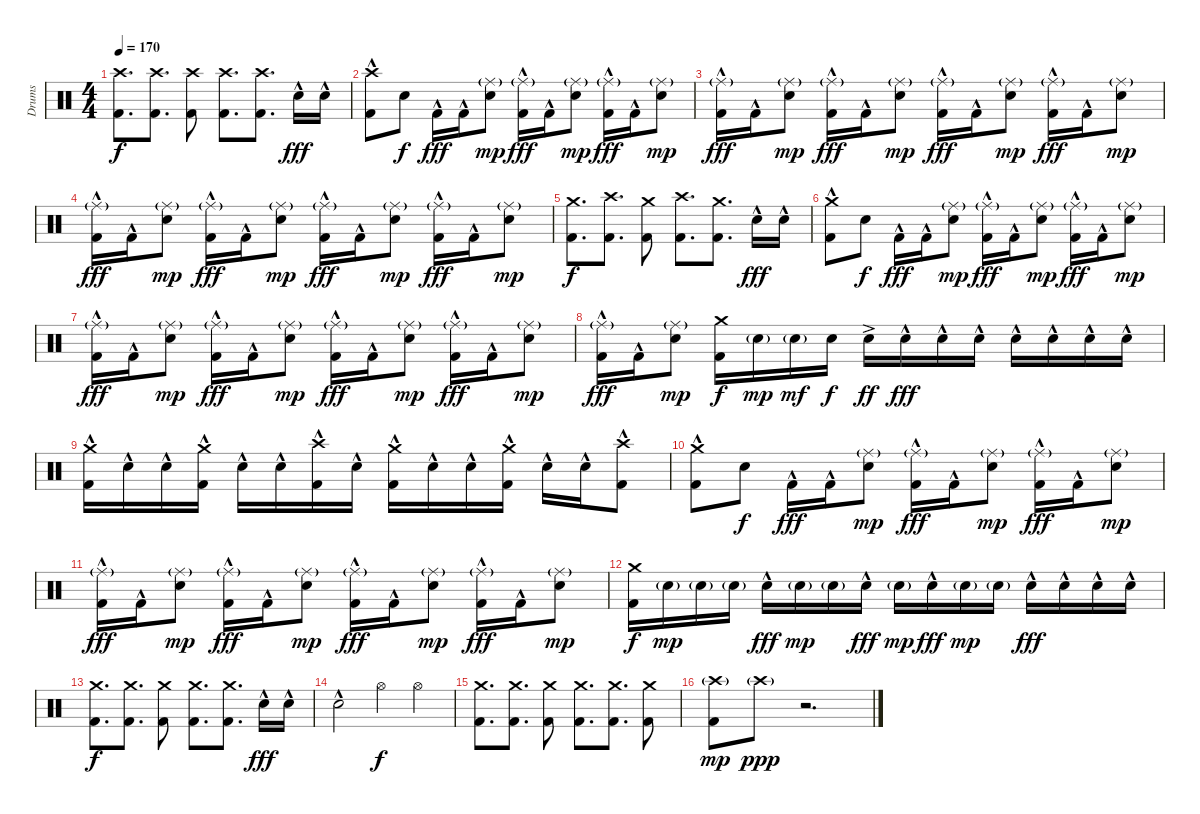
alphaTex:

\track ("Drums" "Drums") {instrument percussion}
\staff {score}
\articulation defaults
\ts (4 4)
\tempo 170
\clef neutral
\ks c
("Crash high (hit)" "Kick (hit) 2").8{d dy f} ("Crash high (hit)" "Kick (hit) 2").8{d} ("Crash high (hit)" "Kick (hit) 2").8 ("Crash high (hit)" "Kick (hit) 2").8{d} ("Crash high (hit)" "Kick (hit) 2").8{d} "Snare (hit) 2"{hac}.16{dy fff} "Snare (hit) 2"{hac}.16 |
("Crash high (hit)" "Kick (hit) 2"{hac}).8 "Snare (hit) 2".8{dy f} "Kick (hit) 2"{hac}.16{dy fff} "Kick (hit) 2"{hac}.16 ("Ride (middle)"{g} "Snare (hit) 2").8{dy mp} ("Ride (middle)"{g} "Kick (hit) 2"{hac}).16{dy fff} "Kick (hit) 2"{hac}.16 ("Ride (middle)"{g} "Snare (hit) 2").8{dy mp} ("Ride (middle)"{g} "Kick (hit) 2"{hac}).16{dy fff} "Kick (hit) 2"{hac}.16 ("Ride (middle)"{g} "Snare (hit) 2").8{dy mp} |
("Ride (middle)"{g} "Kick (hit) 2"{hac}).16{dy fff} "Kick (hit) 2"{hac}.16 ("Ride (middle)"{g} "Snare (hit) 2").8{dy mp} ("Ride (middle)"{g} "Kick (hit) 2"{hac}).16{dy fff} "Kick (hit) 2"{hac}.16 ("Ride (middle)"{g} "Snare (hit) 2").8{dy mp} ("Ride (middle)"{g} "Kick (hit) 2"{hac}).16{dy fff} "Kick (hit) 2"{hac}.16 ("Ride (middle)"{g} "Snare (hit) 2").8{dy mp} ("Ride (middle)"{g} "Kick (hit) 2"{hac}).16{dy fff} "Kick (hit) 2"{hac}.16 ("Ride (middle)"{g} "Snare (hit) 2").8{dy mp} |
("Ride (middle)"{g} "Kick (hit) 2"{hac}).16{dy fff} "Kick (hit) 2"{hac}.16 ("Ride (middle)"{g} "Snare (hit) 2").8{dy mp} ("Ride (middle)"{g} "Kick (hit) 2"{hac}).16{dy fff} "Kick (hit) 2"{hac}.16 ("Ride (middle)"{g} "Snare (hit) 2").8{dy mp} ("Ride (middle)"{g} "Kick (hit) 2"{hac}).16{dy fff} "Kick (hit) 2"{hac}.16 ("Ride (middle)"{g} "Snare (hit) 2").8{dy mp} ("Ride (middle)"{g} "Kick (hit) 2"{hac}).16{dy fff} "Kick (hit) 2"{hac}.16 ("Ride (middle)"{g} "Snare (hit) 2").8{dy mp} |
("Crash medium (hit)" "Kick (hit) 2").8{d dy f} ("Crash high (hit)" "Kick (hit) 2").8{d} ("Crash medium (hit)" "Kick (hit) 2").8 ("Crash high (hit)" "Kick (hit) 2").8{d} ("Crash medium (hit)" "Kick (hit) 2").8{d} "Snare (hit) 2"{hac}.16{dy fff} "Snare (hit) 2"{hac}.16 |
("Crash medium (hit)" "Kick (hit) 2"{hac}).8 "Snare (hit) 2".8{dy f} "Kick (hit) 2"{hac}.16{dy fff} "Kick (hit) 2"{hac}.16 ("Ride (middle)"{g} "Snare (hit) 2").8{dy mp} ("Ride (middle)"{g} "Kick (hit) 2"{hac}).16{dy fff} "Kick (hit) 2"{hac}.16 ("Ride (middle)"{g} "Snare (hit) 2").8{dy mp} ("Ride (middle)"{g} "Kick (hit) 2"{hac}).16{dy fff} "Kick (hit) 2"{hac}.16 ("Ride (middle)"{g} "Snare (hit) 2").8{dy mp} |
("Ride (middle)"{g} "Kick (hit) 2"{hac}).16{dy fff} "Kick (hit) 2"{hac}.16 ("Ride (middle)"{g} "Snare (hit) 2").8{dy mp} ("Ride (middle)"{g} "Kick (hit) 2"{hac}).16{dy fff} "Kick (hit) 2"{hac}.16 ("Ride (middle)"{g} "Snare (hit) 2").8{dy mp} ("Ride (middle)"{g} "Kick (hit) 2"{hac}).16{dy fff} "Kick (hit) 2"{hac}.16 ("Ride (middle)"{g} "Snare (hit) 2").8{dy mp} ("Ride (middle)"{g} "Kick (hit) 2"{hac}).16{dy fff} "Kick (hit) 2"{hac}.16 ("Ride (middle)"{g} "Snare (hit) 2").8{dy mp} |
("Ride (middle)"{g} "Kick (hit) 2"{hac}).16{dy fff} "Kick (hit) 2"{hac}.16 ("Ride (middle)"{g} "Snare (hit) 2").8{dy mp} ("Crash medium (hit)" "Kick (hit) 2").16{dy f} "Snare (hit) 2"{g}.16{dy mp} "Snare (hit) 2"{g}.16{dy mf} "Snare (hit) 2".16{dy f} "Snare (hit) 2"{ac}.16{dy ff} "Snare (hit) 2"{hac}.16{dy fff} "Snare (hit) 2"{hac}.16 "Snare (hit) 2"{hac}.16 "Snare (hit) 2"{hac}.16 "Snare (hit) 2"{hac}.16 "Snare (hit) 2"{hac}.16 "Snare (hit) 2"{hac}.16 |
("Crash medium (hit)"{hac} "Kick (hit) 2"{hac}).16 "Snare (hit) 2"{hac}.16 "Snare (hit) 2"{hac}.16 ("Crash medium (hit)"{hac} "Kick (hit) 2"{hac}).16 "Snare (hit) 2"{hac}.16 "Snare (hit) 2"{hac}.16 ("Crash high (hit)"{hac} "Kick (hit) 2"{hac}).16 "Snare (hit) 2"{hac}.16 ("Crash medium (hit)"{hac} "Kick (hit) 2"{hac}).16 "Snare (hit) 2"{hac}.16 "Snare (hit) 2"{hac}.16 ("Crash medium (hit)"{hac} "Kick (hit) 2"{hac}).16 "Snare (hit) 2"{hac}.16 "Snare (hit) 2"{hac}.16 ("Crash high (hit)"{hac} "Kick (hit) 2"{hac}).8 |
("Crash medium (hit)" "Kick (hit) 2"{hac}).8 "Snare (hit) 2".8{dy f} "Kick (hit) 2"{hac}.16{dy fff} "Kick (hit) 2"{hac}.16 ("Ride (middle)"{g} "Snare (hit) 2").8{dy mp} ("Ride (middle)"{g} "Kick (hit) 2"{hac}).16{dy fff} "Kick (hit) 2"{hac}.16 ("Ride (middle)"{g} "Snare (hit) 2").8{dy mp} ("Ride (middle)"{g} "Kick (hit) 2"{hac}).16{dy fff} "Kick (hit) 2"{hac}.16 ("Ride (middle)"{g} "Snare (hit) 2").8{dy mp} |
("Ride (middle)"{g} "Kick (hit) 2"{hac}).16{dy fff} "Kick (hit) 2"{hac}.16 ("Ride (middle)"{g} "Snare (hit) 2").8{dy mp} ("Ride (middle)"{g} "Kick (hit) 2"{hac}).16{dy fff} "Kick (hit) 2"{hac}.16 ("Ride (middle)"{g} "Snare (hit) 2").8{dy mp} ("Ride (middle)"{g} "Kick (hit) 2"{hac}).16{dy fff} "Kick (hit) 2"{hac}.16 ("Ride (middle)"{g} "Snare (hit) 2").8{dy mp} ("Ride (middle)"{g} "Kick (hit) 2"{hac}).16{dy fff} "Kick (hit) 2"{hac}.16 ("Ride (middle)"{g} "Snare (hit) 2").8{dy mp} |
("Crash medium (hit)" "Kick (hit) 2").16{dy f} "Snare (hit) 2"{g}.16{dy mp} "Snare (hit) 2"{g}.16 "Snare (hit) 2"{g}.16 "Snare (hit) 2"{hac}.16{dy fff} "Snare (hit) 2"{g}.16{dy mp} "Snare (hit) 2"{g}.16 "Snare (hit) 2"{hac}.16{dy fff} "Snare (hit) 2"{g}.16{dy mp} "Snare (hit) 2"{hac}.16{dy fff} "Snare (hit) 2"{g}.16{dy mp} "Snare (hit) 2"{g}.16 "Snare (hit) 2"{hac}.16{dy fff} "Snare (hit) 2"{hac}.16 "Snare (hit) 2"{hac}.16 "Snare (hit) 2"{hac}.16 |
("Crash medium (hit)" "Kick (hit) 2").8{d dy f} ("Crash medium (hit)" "Kick (hit) 2").8{d} ("Crash medium (hit)" "Kick (hit) 2").8 ("Crash medium (hit)" "Kick (hit) 2").8{d} ("Crash medium (hit)" "Kick (hit) 2").8{d} "Snare (hit) 2"{hac}.16{dy fff} "Snare (hit) 2"{hac}.16 |
"Snare (hit) 2"{hac}.2 "Hi-Hat (open)".4{dy f} "Hi-Hat (open)".4 |
("Crash medium (hit)" "Kick (hit) 2").8{d} ("Crash medium (hit)" "Kick (hit) 2").8{d} ("Crash medium (hit)" "Kick (hit) 2").8 ("Crash medium (hit)" "Kick (hit) 2").8{d} ("Crash medium (hit)" "Kick (hit) 2").8{d} ("Crash medium (hit)" "Kick (hit) 2").8 |
("Crash high (hit)"{g} "Kick (hit) 2").8{dy mp} "Crash high (hit)"{g}.8{dy ppp volume 0} r.2{d}
